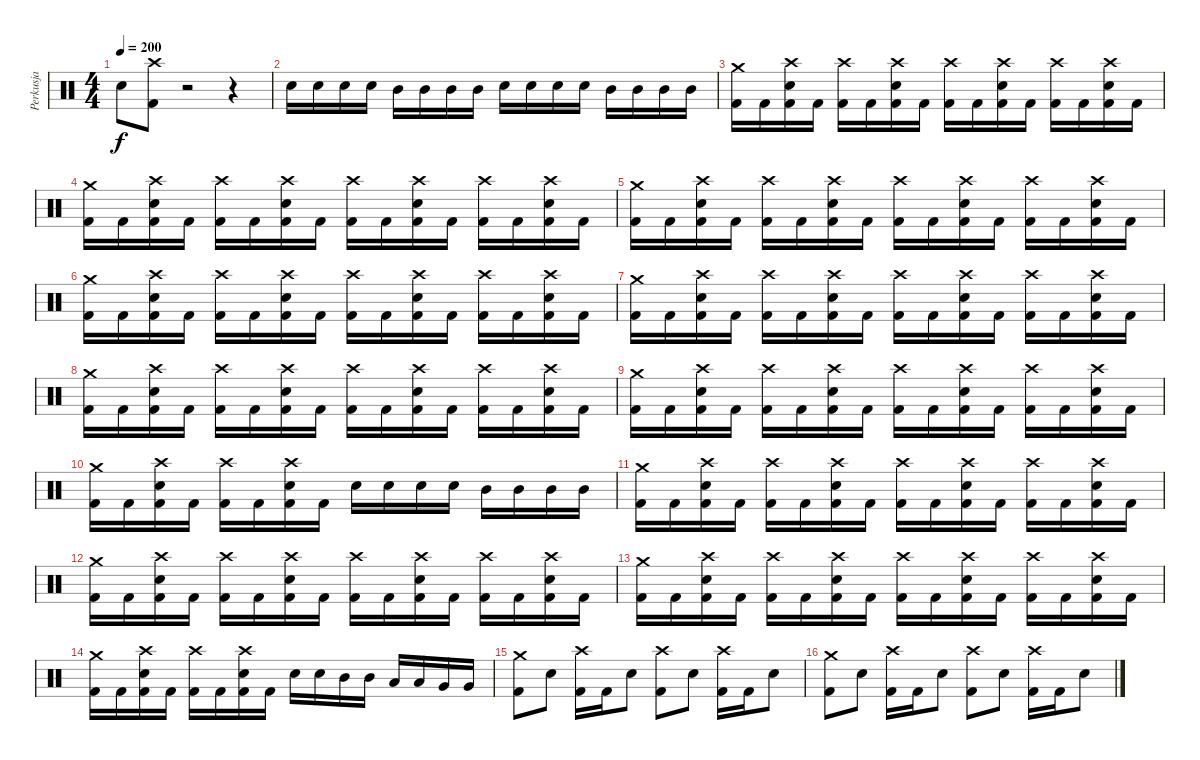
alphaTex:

\track ("Perkusja" "Perkusja") {instrument percussion}
\staff {score}
\articulation defaults
\ts (4 4)
\tempo 200
\clef neutral
\ks c "Snare (hit) 2".8{dy f}
("Crash high (hit)" "Kick (hit) 2").8 r.2 r.4 |
"Snare (hit) 2".16 "Snare (hit) 2".16 "Snare (hit) 2".16 "Snare (hit) 2".16 "Mid Tom (hit)".16 "Mid Tom (hit)".16 "Mid Tom (hit)".16 "Mid Tom (hit)".16 "Snare (hit) 2".16 "Snare (hit) 2".16 "Snare (hit) 2".16 "Snare (hit) 2".16 "Mid Tom (hit)".16 "Mid Tom (hit)".16 "Mid Tom (hit)".16 "Mid Tom (hit)".16 |
("Crash medium (hit)" "Kick (hit) 2").16 "Kick (hit) 2".16 ("Crash high (hit)" "Snare (hit) 2" "Kick (hit) 2").16 "Kick (hit) 2".16 ("Crash high (hit)" "Kick (hit) 2").16 "Kick (hit) 2".16 ("Crash high (hit)" "Snare (hit) 2" "Kick (hit) 2").16 "Kick (hit) 2".16 ("Crash high (hit)" "Kick (hit) 2").16 "Kick (hit) 2".16 ("Crash high (hit)" "Snare (hit) 2" "Kick (hit) 2").16 "Kick (hit) 2".16 ("Crash high (hit)" "Kick (hit) 2").16 "Kick (hit) 2".16 ("Crash high (hit)" "Snare (hit) 2" "Kick (hit) 2").16 "Kick (hit) 2".16 |
("Crash medium (hit)" "Kick (hit) 2").16 "Kick (hit) 2".16 ("Crash high (hit)" "Snare (hit) 2" "Kick (hit) 2").16 "Kick (hit) 2".16 ("Crash high (hit)" "Kick (hit) 2").16 "Kick (hit) 2".16 ("Crash high (hit)" "Snare (hit) 2" "Kick (hit) 2").16 "Kick (hit) 2".16 ("Crash high (hit)" "Kick (hit) 2").16 "Kick (hit) 2".16 ("Crash high (hit)" "Snare (hit) 2" "Kick (hit) 2").16 "Kick (hit) 2".16 ("Crash high (hit)" "Kick (hit) 2").16 "Kick (hit) 2".16 ("Crash high (hit)" "Snare (hit) 2" "Kick (hit) 2").16 "Kick (hit) 2".16 |
("Crash medium (hit)" "Kick (hit) 2").16 "Kick (hit) 2".16 ("Crash high (hit)" "Snare (hit) 2" "Kick (hit) 2").16 "Kick (hit) 2".16 ("Crash high (hit)" "Kick (hit) 2").16 "Kick (hit) 2".16 ("Crash high (hit)" "Snare (hit) 2" "Kick (hit) 2").16 "Kick (hit) 2".16 ("Crash high (hit)" "Kick (hit) 2").16 "Kick (hit) 2".16 ("Crash high (hit)" "Snare (hit) 2" "Kick (hit) 2").16 "Kick (hit) 2".16 ("Crash high (hit)" "Kick (hit) 2").16 "Kick (hit) 2".16 ("Crash high (hit)" "Snare (hit) 2" "Kick (hit) 2").16 "Kick (hit) 2".16 |
("Crash medium (hit)" "Kick (hit) 2").16 "Kick (hit) 2".16 ("Crash high (hit)" "Snare (hit) 2" "Kick (hit) 2").16 "Kick (hit) 2".16 ("Crash high (hit)" "Kick (hit) 2").16 "Kick (hit) 2".16 ("Crash high (hit)" "Snare (hit) 2" "Kick (hit) 2").16 "Kick (hit) 2".16 ("Crash high (hit)" "Kick (hit) 2").16 "Kick (hit) 2".16 ("Crash high (hit)" "Snare (hit) 2" "Kick (hit) 2").16 "Kick (hit) 2".16 ("Crash high (hit)" "Kick (hit) 2").16 "Kick (hit) 2".16 ("Crash high (hit)" "Snare (hit) 2" "Kick (hit) 2").16 "Kick (hit) 2".16 |
("Crash medium (hit)" "Kick (hit) 2").16 "Kick (hit) 2".16 ("Crash high (hit)" "Snare (hit) 2" "Kick (hit) 2").16 "Kick (hit) 2".16 ("Crash high (hit)" "Kick (hit) 2").16 "Kick (hit) 2".16 ("Crash high (hit)" "Snare (hit) 2" "Kick (hit) 2").16 "Kick (hit) 2".16 ("Crash high (hit)" "Kick (hit) 2").16 "Kick (hit) 2".16 ("Crash high (hit)" "Snare (hit) 2" "Kick (hit) 2").16 "Kick (hit) 2".16 ("Crash high (hit)" "Kick (hit) 2").16 "Kick (hit) 2".16 ("Crash high (hit)" "Snare (hit) 2" "Kick (hit) 2").16 "Kick (hit) 2".16 |
("Crash medium (hit)" "Kick (hit) 2").16 "Kick (hit) 2".16 ("Crash high (hit)" "Snare (hit) 2" "Kick (hit) 2").16 "Kick (hit) 2".16 ("Crash high (hit)" "Kick (hit) 2").16 "Kick (hit) 2".16 ("Crash high (hit)" "Snare (hit) 2" "Kick (hit) 2").16 "Kick (hit) 2".16 ("Crash high (hit)" "Kick (hit) 2").16 "Kick (hit) 2".16 ("Crash high (hit)" "Snare (hit) 2" "Kick (hit) 2").16 "Kick (hit) 2".16 ("Crash high (hit)" "Kick (hit) 2").16 "Kick (hit) 2".16 ("Crash high (hit)" "Snare (hit) 2" "Kick (hit) 2").16 "Kick (hit) 2".16 |
("Crash medium (hit)" "Kick (hit) 2").16 "Kick (hit) 2".16 ("Crash high (hit)" "Snare (hit) 2" "Kick (hit) 2").16 "Kick (hit) 2".16 ("Crash high (hit)" "Kick (hit) 2").16 "Kick (hit) 2".16 ("Crash high (hit)" "Snare (hit) 2" "Kick (hit) 2").16 "Kick (hit) 2".16 ("Crash high (hit)" "Kick (hit) 2").16 "Kick (hit) 2".16 ("Crash high (hit)" "Snare (hit) 2" "Kick (hit) 2").16 "Kick (hit) 2".16 ("Crash high (hit)" "Kick (hit) 2").16 "Kick (hit) 2".16 ("Crash high (hit)" "Snare (hit) 2" "Kick (hit) 2").16 "Kick (hit) 2".16 |
("Crash medium (hit)" "Kick (hit) 2").16 "Kick (hit) 2".16 ("Crash high (hit)" "Snare (hit) 2" "Kick (hit) 2").16 "Kick (hit) 2".16 ("Crash high (hit)" "Kick (hit) 2").16 "Kick (hit) 2".16 ("Crash high (hit)" "Snare (hit) 2" "Kick (hit) 2").16 "Kick (hit) 2".16 "Snare (hit) 2".16 "Snare (hit) 2".16 "Snare (hit) 2".16 "Snare (hit) 2".16 "Mid Tom (hit)".16 "Mid Tom (hit)".16 "Mid Tom (hit)".16 "Mid Tom (hit)".16 |
("Crash medium (hit)" "Kick (hit) 2").16 "Kick (hit) 2".16 ("Crash high (hit)" "Snare (hit) 2" "Kick (hit) 2").16 "Kick (hit) 2".16 ("Crash high (hit)" "Kick (hit) 2").16 "Kick (hit) 2".16 ("Crash high (hit)" "Snare (hit) 2" "Kick (hit) 2").16 "Kick (hit) 2".16 ("Crash high (hit)" "Kick (hit) 2").16 "Kick (hit) 2".16 ("Crash high (hit)" "Snare (hit) 2" "Kick (hit) 2").16 "Kick (hit) 2".16 ("Crash high (hit)" "Kick (hit) 2").16 "Kick (hit) 2".16 ("Crash high (hit)" "Snare (hit) 2" "Kick (hit) 2").16 "Kick (hit) 2".16 |
("Crash medium (hit)" "Kick (hit) 2").16 "Kick (hit) 2".16 ("Crash high (hit)" "Snare (hit) 2" "Kick (hit) 2").16 "Kick (hit) 2".16 ("Crash high (hit)" "Kick (hit) 2").16 "Kick (hit) 2".16 ("Crash high (hit)" "Snare (hit) 2" "Kick (hit) 2").16 "Kick (hit) 2".16 ("Crash high (hit)" "Kick (hit) 2").16 "Kick (hit) 2".16 ("Crash high (hit)" "Snare (hit) 2" "Kick (hit) 2").16 "Kick (hit) 2".16 ("Crash high (hit)" "Kick (hit) 2").16 "Kick (hit) 2".16 ("Crash high (hit)" "Snare (hit) 2" "Kick (hit) 2").16 "Kick (hit) 2".16 |
("Crash medium (hit)" "Kick (hit) 2").16 "Kick (hit) 2".16 ("Crash high (hit)" "Snare (hit) 2" "Kick (hit) 2").16 "Kick (hit) 2".16 ("Crash high (hit)" "Kick (hit) 2").16 "Kick (hit) 2".16 ("Crash high (hit)" "Snare (hit) 2" "Kick (hit) 2").16 "Kick (hit) 2".16 ("Crash high (hit)" "Kick (hit) 2").16 "Kick (hit) 2".16 ("Crash high (hit)" "Snare (hit) 2" "Kick (hit) 2").16 "Kick (hit) 2".16 ("Crash high (hit)" "Kick (hit) 2").16 "Kick (hit) 2".16 ("Crash high (hit)" "Snare (hit) 2" "Kick (hit) 2").16 "Kick (hit) 2".16 |
("Crash medium (hit)" "Kick (hit) 2").16 "Kick (hit) 2".16 ("Crash high (hit)" "Snare (hit) 2" "Kick (hit) 2").16 "Kick (hit) 2".16 ("Crash high (hit)" "Kick (hit) 2").16 "Kick (hit) 2".16 ("Crash high (hit)" "Snare (hit) 2" "Kick (hit) 2").16 "Kick (hit) 2".16 "Snare (hit) 2".16 "Snare (hit) 2".16 "Mid Tom (hit)".16 "Mid Tom (hit)".16 "Low Tom (hit)".16 "Low Tom (hit)".16 "Very Low Tom (hit)".16 "Very Low Tom (hit)".16 |
("Crash medium (hit)" "Kick (hit) 2").8 "Snare (hit) 2".8 ("Crash high (hit)" "Kick (hit) 2").16 "Kick (hit) 2".16 "Snare (hit) 2".8 ("Crash high (hit)" "Kick (hit) 2").8 "Snare (hit) 2".8 ("Crash high (hit)" "Kick (hit) 2").16 "Kick (hit) 2".16 "Snare (hit) 2".8 |
("Crash medium (hit)" "Kick (hit) 2").8 "Snare (hit) 2".8 ("Crash high (hit)" "Kick (hit) 2").16 "Kick (hit) 2".16 "Snare (hit) 2".8 ("Crash high (hit)" "Kick (hit) 2").8 "Snare (hit) 2".8 ("Crash high (hit)" "Kick (hit) 2").16 "Kick (hit) 2".16 "Snare (hit) 2".8
